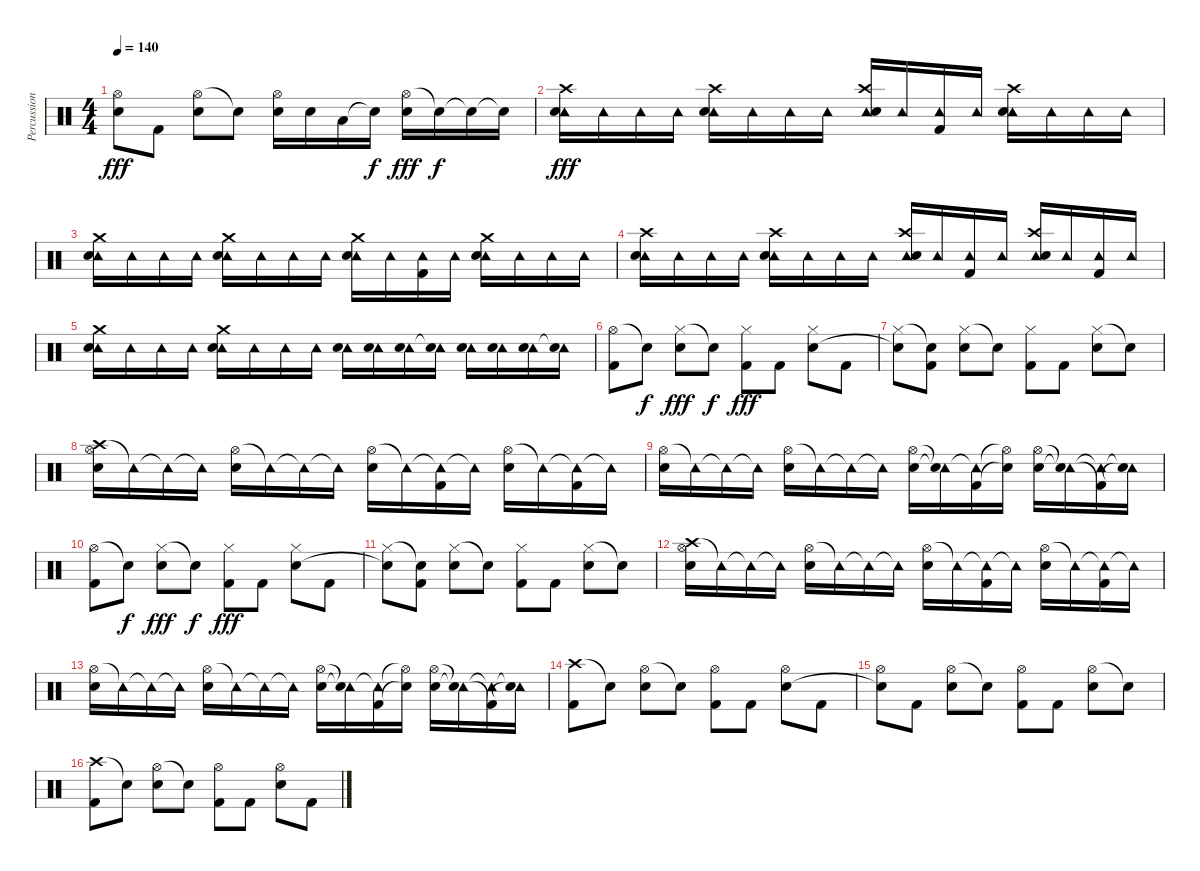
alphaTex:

\track ("Percussion" "Percussion") {instrument percussion}
\staff {score}
\articulation defaults
\ts (4 4)
\tempo 140
\clef neutral
\ks c
("Hi-Hat (open)" "Snare (hit)"{t}).8{dy fff} "Kick (hit) 2".8 ("Hi-Hat (open)" "Electric Snare (hit)").8 "Snare (hit)"{t}.8 ("Hi-Hat (open)" "Electric Snare (hit)").16 "Electric Snare (hit)".16 "Low Floor Tom (hit)".16 "Snare (hit)"{t}.16{dy f} ("Hi-Hat (open)" "Electric Snare (hit)").16{dy fff} "Snare (hit)"{t}.16{dy f} "Snare (hit)"{t}.16 "Snare (hit)"{t}.16 |
("Crash high (hit)" "Tambourine (hit)" "Electric Snare (hit)").16{dy fff} "Tambourine (hit)".16 "Tambourine (hit)".16 "Tambourine (hit)".16 ("Crash high (hit)" "Tambourine (hit)" "Electric Snare (hit)").16 "Tambourine (hit)".16 "Tambourine (hit)".16 "Tambourine (hit)".16 ("Crash high (hit)" "Tambourine (hit)" "Electric Snare (hit)").16 "Tambourine (hit)".16 ("Tambourine (hit)" "Kick (hit) 2").16 "Tambourine (hit)".16 ("Crash high (hit)" "Tambourine (hit)" "Electric Snare (hit)").16 "Tambourine (hit)".16 "Tambourine (hit)".16 "Tambourine (hit)".16 |
("Crash medium (hit)" "Tambourine (hit)" "Electric Snare (hit)").16 "Tambourine (hit)".16 "Tambourine (hit)".16 "Tambourine (hit)".16 ("Crash medium (hit)" "Tambourine (hit)" "Electric Snare (hit)").16 "Tambourine (hit)".16 "Tambourine (hit)".16 "Tambourine (hit)".16 ("Crash medium (hit)" "Tambourine (hit)" "Electric Snare (hit)").16 "Tambourine (hit)".16 ("Tambourine (hit)" "Kick (hit) 2").16 "Tambourine (hit)".16 ("Crash medium (hit)" "Tambourine (hit)" "Electric Snare (hit)").16 "Tambourine (hit)".16 "Tambourine (hit)".16 "Tambourine (hit)".16 |
("Crash high (hit)" "Tambourine (hit)" "Electric Snare (hit)").16 "Tambourine (hit)".16 "Tambourine (hit)".16 "Tambourine (hit)".16 ("Crash high (hit)" "Tambourine (hit)" "Electric Snare (hit)").16 "Tambourine (hit)".16 "Tambourine (hit)".16 "Tambourine (hit)".16 ("Crash high (hit)" "Tambourine (hit)" "Electric Snare (hit)").16 "Tambourine (hit)".16 ("Tambourine (hit)" "Kick (hit) 2").16 "Tambourine (hit)".16 ("Crash high (hit)" "Tambourine (hit)" "Electric Snare (hit)").16 "Tambourine (hit)".16 ("Tambourine (hit)" "Kick (hit) 2").16 "Tambourine (hit)".16 |
("Crash medium (hit)" "Tambourine (hit)" "Electric Snare (hit)").16 "Tambourine (hit)".16 "Tambourine (hit)".16 "Tambourine (hit)".16 ("Crash medium (hit)" "Tambourine (hit)" "Electric Snare (hit)").16 "Tambourine (hit)".16 "Tambourine (hit)".16 "Tambourine (hit)".16 ("Tambourine (hit)" "Electric Snare (hit)").16 ("Tambourine (hit)" "Electric Snare (hit)").16 ("Tambourine (hit)" "Electric Snare (hit)").16 ("Tambourine (hit)" "Snare (hit)"{t}).16 ("Tambourine (hit)" "Electric Snare (hit)").16 ("Tambourine (hit)" "Electric Snare (hit)").16 ("Tambourine (hit)" "Electric Snare (hit)").16 ("Tambourine (hit)" "Snare (hit)"{t}).16 |
("Hi-Hat (open)" "Kick (hit) 2").8 "Snare (hit)"{t}.8{dy f} ("Hi-Hat (closed)" "Electric Snare (hit)").8{dy fff} "Snare (hit)"{t}.8{dy f} ("Hi-Hat (closed)" "Kick (hit) 2").8{dy fff} "Kick (hit) 2".8 ("Hi-Hat (closed)" "Electric Snare (hit)").8 "Kick (hit) 2".8 |
("Hi-Hat (closed)" "Snare (hit)"{t}).8 ("Snare (hit)"{t} "Kick (hit) 2").8 ("Hi-Hat (closed)" "Electric Snare (hit)").8 "Snare (hit)"{t}.8 ("Hi-Hat (closed)" "Kick (hit) 2").8 "Kick (hit) 2".8 ("Hi-Hat (closed)" "Electric Snare (hit)").8 "Snare (hit)"{t}.8 |
("Crash high (hit)" "Hi-Hat (open)" "Electric Snare (hit)").16 "Tambourine (hit)"{t}.16 "Tambourine (hit)"{t}.16 "Tambourine (hit)"{t}.16 ("Hi-Hat (open)" "Electric Snare (hit)").16 "Tambourine (hit)"{t}.16 "Tambourine (hit)"{t}.16 "Tambourine (hit)"{t}.16 ("Hi-Hat (open)" "Electric Snare (hit)").16 "Tambourine (hit)"{t}.16 ("Tambourine (hit)"{t} "Kick (hit) 2").16 "Tambourine (hit)"{t}.16 ("Hi-Hat (open)" "Electric Snare (hit)").16 "Tambourine (hit)"{t}.16 ("Tambourine (hit)"{t} "Kick (hit) 2").16 "Tambourine (hit)"{t}.16 |
("Hi-Hat (open)" "Electric Snare (hit)").16 "Tambourine (hit)"{t}.16 "Tambourine (hit)"{t}.16 "Tambourine (hit)"{t}.16 ("Hi-Hat (open)" "Electric Snare (hit)").16 "Tambourine (hit)"{t}.16 "Tambourine (hit)"{t}.16 "Tambourine (hit)"{t}.16 ("Hi-Hat (open)" "Electric Snare (hit)").16 ("Tambourine (hit)"{t} "Electric Snare (hit)"{t}).16 ("Tambourine (hit)"{t} "Kick (hit) 2").16 ("Hi-Hat (open)"{t} "Snare (hit)"{t}).16 ("Hi-Hat (open)" "Electric Snare (hit)").16 ("Tambourine (hit)"{t} "Electric Snare (hit)"{t}).16 ("Tambourine (hit)"{t} "Kick (hit) 2"{t}).16 ("Tambourine (hit)"{t} "Snare (hit)"{t}).16 |
("Hi-Hat (open)" "Kick (hit) 2").8 "Snare (hit)"{t}.8{dy f} ("Hi-Hat (closed)" "Electric Snare (hit)").8{dy fff} "Snare (hit)"{t}.8{dy f} ("Hi-Hat (closed)" "Kick (hit) 2").8{dy fff} "Kick (hit) 2".8 ("Hi-Hat (closed)" "Electric Snare (hit)").8 "Kick (hit) 2".8 |
("Hi-Hat (closed)" "Snare (hit)"{t}).8 ("Snare (hit)"{t} "Kick (hit) 2").8 ("Hi-Hat (closed)" "Electric Snare (hit)").8 "Snare (hit)"{t}.8 ("Hi-Hat (closed)" "Kick (hit) 2").8 "Kick (hit) 2".8 ("Hi-Hat (closed)" "Electric Snare (hit)").8 "Snare (hit)"{t}.8 |
("Crash high (hit)" "Hi-Hat (open)" "Electric Snare (hit)").16 "Tambourine (hit)"{t}.16 "Tambourine (hit)"{t}.16 "Tambourine (hit)"{t}.16 ("Hi-Hat (open)" "Electric Snare (hit)").16 "Tambourine (hit)"{t}.16 "Tambourine (hit)"{t}.16 "Tambourine (hit)"{t}.16 ("Hi-Hat (open)" "Electric Snare (hit)").16 "Tambourine (hit)"{t}.16 ("Tambourine (hit)"{t} "Kick (hit) 2").16 "Tambourine (hit)"{t}.16 ("Hi-Hat (open)" "Electric Snare (hit)").16 "Tambourine (hit)"{t}.16 ("Tambourine (hit)"{t} "Kick (hit) 2").16 "Tambourine (hit)"{t}.16 |
("Hi-Hat (open)" "Electric Snare (hit)").16 "Tambourine (hit)"{t}.16 "Tambourine (hit)"{t}.16 "Tambourine (hit)"{t}.16 ("Hi-Hat (open)" "Electric Snare (hit)").16 "Tambourine (hit)"{t}.16 "Tambourine (hit)"{t}.16 "Tambourine (hit)"{t}.16 ("Hi-Hat (open)" "Electric Snare (hit)").16 ("Tambourine (hit)"{t} "Electric Snare (hit)"{t}).16 ("Tambourine (hit)"{t} "Kick (hit) 2").16 ("Hi-Hat (open)"{t} "Snare (hit)"{t}).16 ("Hi-Hat (open)" "Electric Snare (hit)").16 ("Tambourine (hit)"{t} "Electric Snare (hit)"{t}).16 ("Tambourine (hit)"{t} "Kick (hit) 2"{t}).16 ("Tambourine (hit)"{t} "Snare (hit)"{t}).16 |
("Crash high (hit)" "Kick (hit) 2").8 "Snare (hit)"{t}.8 ("Hi-Hat (open)" "Electric Snare (hit)").8 "Snare (hit)"{t}.8 ("Hi-Hat (open)" "Kick (hit) 2").8 "Kick (hit) 2".8 ("Hi-Hat (open)" "Electric Snare (hit)").8 "Kick (hit) 2".8 |
("Hi-Hat (open)" "Snare (hit)"{t}).8 "Kick (hit) 2".8 ("Hi-Hat (open)" "Electric Snare (hit)").8 "Snare (hit)"{t}.8 ("Hi-Hat (open)" "Kick (hit) 2").8 "Kick (hit) 2".8 ("Hi-Hat (open)" "Electric Snare (hit)").8 "Snare (hit)"{t}.8 |
("Crash high (hit)" "Kick (hit) 2").8 "Snare (hit)"{t}.8 ("Hi-Hat (open)" "Electric Snare (hit)").8 "Snare (hit)"{t}.8 ("Hi-Hat (open)" "Kick (hit) 2").8 "Kick (hit) 2".8 ("Hi-Hat (open)" "Electric Snare (hit)").8 "Kick (hit) 2".8
